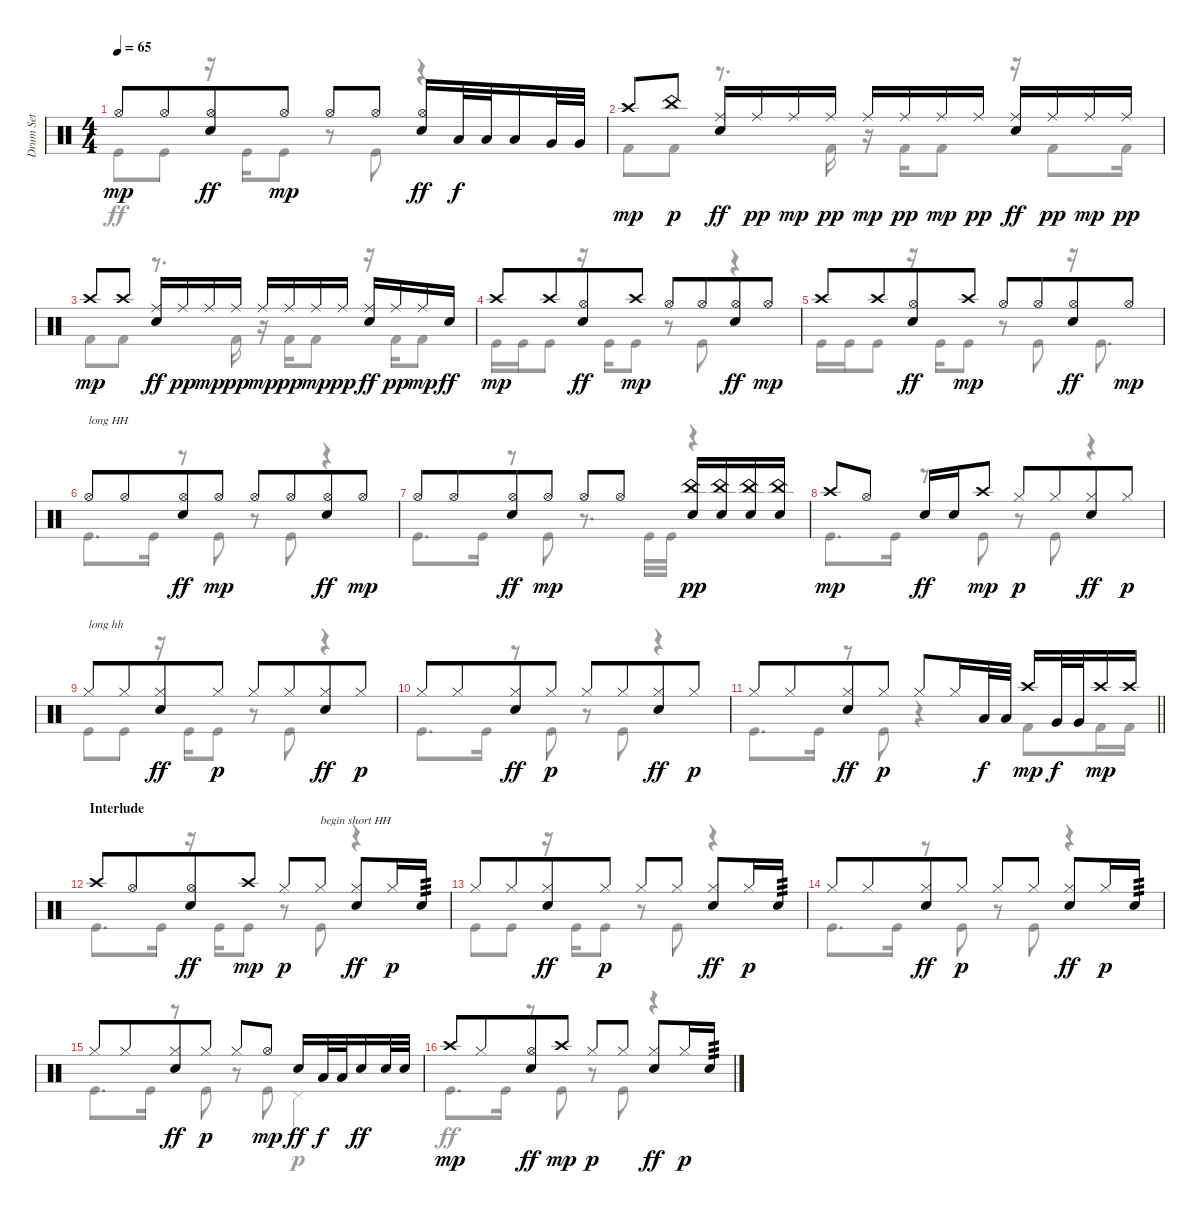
\track ("Drum Set" "Drum Set") {instrument percussion}
\staff {score}
\articulation defaults
\voice
\ts (4 4)
\tempo 65
\clef neutral
\ks c "Hi-Hat (open)".8{dy mp} "Hi-Hat (open)".8{beam merge}
("Hi-Hat (open)" "Electric Snare (hit)").8{dy ff} "Hi-Hat (open)".8{dy mp} "Hi-Hat (open)".8 "Hi-Hat (open)".8 ("Hi-Hat (open)" "Electric Snare (hit)").16{dy ff} "Low Tom (hit)".32{dy f} "Low Tom (hit)".32{beam splitsecondary} "Low Tom (hit)".16 "Very Low Tom (hit)".32 "Very Low Tom (hit)".32 |
"Crash high (hit)".8{dy mp} "China (hit)".8{dy p} ("Ride (middle)" "Electric Snare (hit)").16{dy ff} "Ride (middle)".16{dy pp} "Ride (middle)".16{dy mp} "Ride (middle)".16{dy pp} "Ride (middle)".16{dy mp} "Ride (middle)".16{dy pp} "Ride (middle)".16{dy mp} "Ride (middle)".16{dy pp} ("Ride (middle)" "Electric Snare (hit)").16{dy ff} "Ride (middle)".16{dy pp} "Ride (middle)".16{dy mp} "Ride (middle)".16{dy pp} |
"Crash high (hit)".8{dy mp} "Crash high (hit)".8 ("Ride (middle)" "Electric Snare (hit)").16{dy ff} "Ride (middle)".16{dy pp} "Ride (middle)".16{dy mp} "Ride (middle)".16{dy pp} "Ride (middle)".16{dy mp} "Ride (middle)".16{dy pp} "Ride (middle)".16{dy mp} "Ride (middle)".16{dy pp} ("Ride (middle)" "Electric Snare (hit)").16{dy ff} "Ride (middle)".16{dy pp} "Ride (middle)".16{dy mp} "Electric Snare (hit)".16{dy ff} |
"Crash high (hit)".8{dy mp} "Crash high (hit)".8{beam merge} ("Hi-Hat (open)" "Electric Snare (hit)").8{dy ff} "Crash high (hit)".8{dy mp} "Hi-Hat (open)".8 "Hi-Hat (open)".8{beam merge} ("Hi-Hat (open)" "Electric Snare (hit)").8{dy ff} "Hi-Hat (open)".8{dy mp} |
"Crash high (hit)".8 "Crash high (hit)".8{beam merge} ("Hi-Hat (open)" "Electric Snare (hit)").8{dy ff} "Crash high (hit)".8{dy mp} "Hi-Hat (open)".8 "Hi-Hat (open)".8{beam merge} ("Hi-Hat (open)" "Electric Snare (hit)").8{dy ff} "Hi-Hat (open)".8{dy mp} |
"Hi-Hat (open)".8{txt "long HH"} "Hi-Hat (open)".8{beam merge} ("Hi-Hat (open)" "Electric Snare (hit)").8{dy ff} "Hi-Hat (open)".8{dy mp} "Hi-Hat (open)".8 "Hi-Hat (open)".8{beam merge} ("Hi-Hat (open)" "Electric Snare (hit)").8{dy ff} "Hi-Hat (open)".8{dy mp} |
"Hi-Hat (open)".8 "Hi-Hat (open)".8{beam merge} ("Hi-Hat (open)" "Electric Snare (hit)").8{dy ff} "Hi-Hat (open)".8{dy mp} "Hi-Hat (open)".8 "Hi-Hat (open)".8 ("Electric Snare (hit)" "China (hit)").16{dy pp} ("Electric Snare (hit)" "China (hit)").16 ("Electric Snare (hit)" "China (hit)").16 ("Electric Snare (hit)" "China (hit)").16 |
"Crash high (hit)".8{dy mp} "Hi-Hat (open)".8 "Electric Snare (hit)".16{dy ff} "Electric Snare (hit)".16 "Crash high (hit)".8{dy mp} "Hi-Hat (closed)".8{dy p} "Hi-Hat (closed)".8{beam merge} ("Hi-Hat (closed)" "Electric Snare (hit)").8{dy ff} "Hi-Hat (closed)".8{dy p} |
"Hi-Hat (closed)".8{txt "long hh"} "Hi-Hat (closed)".8{beam merge} ("Hi-Hat (closed)" "Electric Snare (hit)").8{dy ff} "Hi-Hat (closed)".8{dy p} "Hi-Hat (closed)".8 "Hi-Hat (closed)".8{beam merge} ("Hi-Hat (closed)" "Electric Snare (hit)").8{dy ff} "Hi-Hat (closed)".8{dy p} |
"Hi-Hat (closed)".8 "Hi-Hat (closed)".8{beam merge} ("Hi-Hat (closed)" "Electric Snare (hit)").8{dy ff} "Hi-Hat (closed)".8{dy p} "Hi-Hat (closed)".8 "Hi-Hat (closed)".8{beam merge} ("Hi-Hat (closed)" "Electric Snare (hit)").8{dy ff} "Hi-Hat (closed)".8{dy p} |
\barLineRight lightlight "Hi-Hat (closed)".8 "Hi-Hat (closed)".8{beam merge}
("Hi-Hat (closed)" "Electric Snare (hit)").8{dy ff} "Hi-Hat (closed)".8{dy p} "Hi-Hat (closed)".8 "Hi-Hat (closed)".16 "Low Tom (hit)".32{dy f} "Low Tom (hit)".32 "Crash high (hit)".16{dy mp} "Very Low Tom (hit)".32{dy f} "Very Low Tom (hit)".32{beam splitsecondary} "Crash high (hit)".16{dy mp} "Crash high (hit)".16 |
\section ("" "Interlude")
"Crash high (hit)".8 "Hi-Hat (open)".8{beam merge} ("Hi-Hat (open)" "Electric Snare (hit)").8{dy ff} "Crash high (hit)".8{dy mp} "Hi-Hat (closed)".8{dy p} "Hi-Hat (closed)".8{txt "begin short HH" beam split} ("Hi-Hat (closed)" "Electric Snare (hit)").8{dy ff} "Hi-Hat (closed)".16{dy p} "Electric Snare (hit)".16{tp 3} |
"Hi-Hat (closed)".8 "Hi-Hat (closed)".8{beam merge} ("Hi-Hat (closed)" "Electric Snare (hit)").8{dy ff} "Hi-Hat (closed)".8{dy p} "Hi-Hat (closed)".8 "Hi-Hat (closed)".8{beam split} ("Hi-Hat (closed)" "Electric Snare (hit)").8{dy ff} "Hi-Hat (closed)".16{dy p} "Electric Snare (hit)".16{tp 3} |
"Hi-Hat (closed)".8 "Hi-Hat (closed)".8{beam merge} ("Hi-Hat (closed)" "Electric Snare (hit)").8{dy ff} "Hi-Hat (closed)".8{dy p} "Hi-Hat (closed)".8 "Hi-Hat (closed)".8{beam split} ("Hi-Hat (closed)" "Electric Snare (hit)").8{dy ff} "Hi-Hat (closed)".16{dy p} "Electric Snare (hit)".16{tp 3} |
"Hi-Hat (closed)".8 "Hi-Hat (closed)".8{beam merge} ("Hi-Hat (closed)" "Electric Snare (hit)").8{dy ff} "Hi-Hat (closed)".8{dy p} "Hi-Hat (closed)".8 "Hi-Hat (open)".8{dy mp} "Electric Snare (hit)".16{dy ff} "Low Tom (hit)".32{dy f} "Low Tom (hit)".32{beam splitsecondary} "Electric Snare (hit)".16{dy ff} "Electric Snare (hit)".32 "Electric Snare (hit)".32 |
"Crash high (hit)".8{dy mp} "Hi-Hat (closed)".8{beam merge} ("Hi-Hat (open)" "Electric Snare (hit)").8{dy ff} "Crash high (hit)".8{dy mp} "Hi-Hat (closed)".8{dy p} "Hi-Hat (closed)".8 ("Hi-Hat (closed)" "Electric Snare (hit)").8{dy ff} "Hi-Hat (closed)".16{dy p} "Electric Snare (hit)".16{tp 3}
\voice
\clef neutral
\ottava regular
\simile none
\ks c "Kick (hit)".8{dy ff} "Kick (hit)".8
r.16 "Kick (hit)".16 "Kick (hit)".8 r.8 "Kick (hit)".8 r.4 |
"Kick (hit) 2".8 "Kick (hit) 2".8 r.8{d} "Kick (hit) 2".16 r.16 "Kick (hit) 2".16 "Kick (hit) 2".8 r.16 "Kick (hit) 2".8 "Kick (hit) 2".16 |
"Kick (hit) 2".8 "Kick (hit) 2".8 r.8{d} "Kick (hit) 2".16 r.16 "Kick (hit) 2".16 "Kick (hit) 2".8 r.16 "Kick (hit) 2".16 "Kick (hit) 2".8 |
"Kick (hit)".16 "Kick (hit)".16 "Kick (hit)".8 r.16 "Kick (hit)".16 "Kick (hit)".8 r.8 "Kick (hit)".8 r.4 |
"Kick (hit)".16 "Kick (hit)".16 "Kick (hit)".8 r.16 "Kick (hit)".16 "Kick (hit)".8 r.8 "Kick (hit)".8 r.16 "Kick (hit)".8{d} |
"Kick (hit)".8{d} "Kick (hit)".16 r.8 "Kick (hit)".8 r.8 "Kick (hit)".8 r.4 |
"Kick (hit)".8{d} "Kick (hit)".16 r.8 "Kick (hit)".8 r.8{d} "Kick (hit)".32 "Kick (hit)".32 r.4 |
"Kick (hit)".8{d} "Kick (hit)".16 r.8 "Kick (hit)".8 r.8 "Kick (hit)".8 r.4 |
"Kick (hit)".8 "Kick (hit)".8 r.16 "Kick (hit)".16 "Kick (hit)".8 r.8 "Kick (hit)".8 r.4 |
"Kick (hit)".8{d} "Kick (hit)".16 r.8 "Kick (hit)".8 r.8 "Kick (hit)".8 r.4 |
\barLineRight lightlight "Kick (hit)".8{d} "Kick (hit)".16
r.8 "Kick (hit)".8 r.4 "Kick (hit) 2".8 "Kick (hit) 2".16 "Kick (hit) 2".16 |
"Kick (hit)".8{d} "Kick (hit)".16 r.16 "Kick (hit)".16 "Kick (hit)".8 r.8 "Kick (hit)".8 r.4 |
"Kick (hit)".8 "Kick (hit)".8 r.16 "Kick (hit)".16 "Kick (hit)".8 r.8 "Kick (hit)".8 r.4 |
"Kick (hit)".8{d} "Kick (hit)".16 r.8 "Kick (hit)".8 r.8 "Kick (hit)".8 r.4 |
"Kick (hit)".8{d} "Kick (hit)".16 r.8 "Kick (hit)".8 r.8 "Kick (hit)".8 "Pedal Hi-Hat (hit)".4{dy p} |
"Kick (hit)".8{d dy ff} "Kick (hit)".16 r.8 "Kick (hit)".8 r.8 "Kick (hit)".8 r.4
